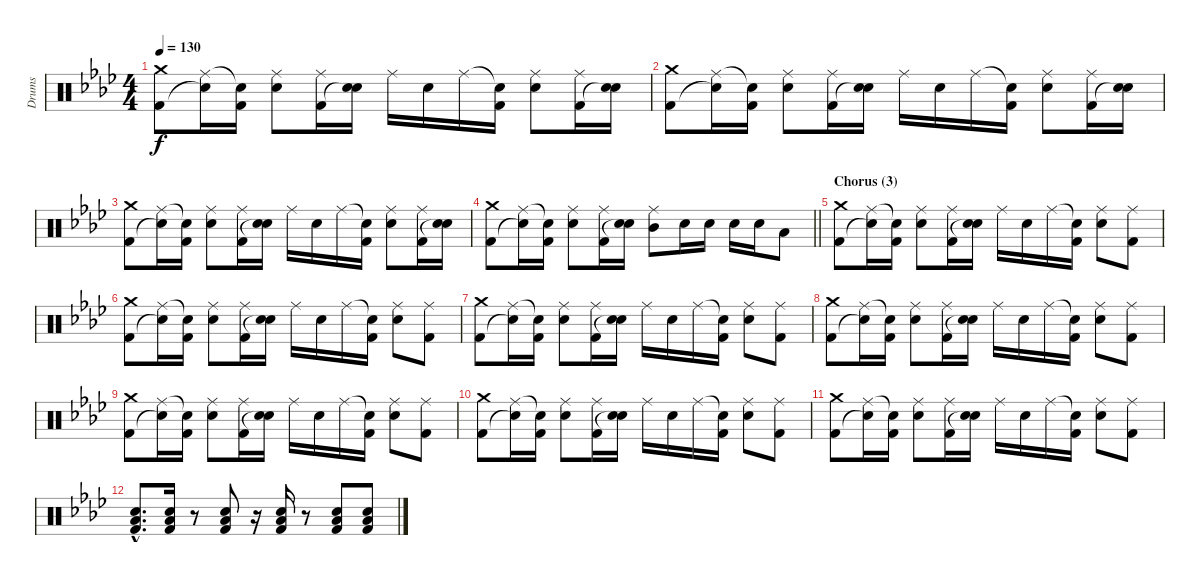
\track ("Drums" "Drums") {instrument percussion}
\staff {score}
\articulation defaults
\ts (4 4)
\tempo 130
\clef neutral
\ks fminor
("Crash medium (hit)" "Kick (hit) 2").8{dy f} ("Ride (middle)" "Snare (hit)"{t}).16 ("Snare (hit)"{t} "Kick (hit) 2").16 ("Ride (middle)" "Electric Snare (hit)").8 ("Ride (middle)" "Kick (hit) 2").16 ("Electric Snare (hit)" "Snare (hit)"{t}).16 "Ride (middle)".16 "Electric Snare (hit)".16 "Ride (middle)".16 ("Snare (hit)"{t} "Kick (hit) 2").16 ("Ride (middle)" "Electric Snare (hit)").8 ("Ride (middle)" "Kick (hit) 2").16 ("Electric Snare (hit)" "Snare (hit)"{t}).16 |
("Crash medium (hit)" "Kick (hit) 2").8 ("Ride (middle)" "Snare (hit)"{t}).16 ("Snare (hit)"{t} "Kick (hit) 2").16 ("Ride (middle)" "Electric Snare (hit)").8 ("Ride (middle)" "Kick (hit) 2").16 ("Electric Snare (hit)" "Snare (hit)"{t}).16 "Ride (middle)".16 "Electric Snare (hit)".16 "Ride (middle)".16 ("Snare (hit)"{t} "Kick (hit) 2").16 ("Ride (middle)" "Electric Snare (hit)").8 ("Ride (middle)" "Kick (hit) 2").16 ("Electric Snare (hit)" "Snare (hit)"{t}).16 |
("Crash medium (hit)" "Kick (hit) 2").8 ("Ride (middle)" "Snare (hit)"{t}).16 ("Snare (hit)"{t} "Kick (hit) 2").16 ("Ride (middle)" "Electric Snare (hit)").8 ("Ride (middle)" "Kick (hit) 2").16 ("Electric Snare (hit)" "Snare (hit)"{t}).16 "Ride (middle)".16 "Electric Snare (hit)".16 "Ride (middle)".16 ("Snare (hit)"{t} "Kick (hit) 2").16 ("Ride (middle)" "Electric Snare (hit)").8 ("Ride (middle)" "Kick (hit) 2").16 ("Electric Snare (hit)" "Snare (hit)"{t}).16 |
\barLineRight lightlight
("Crash medium (hit)" "Kick (hit) 2").8 ("Ride (middle)" "Snare (hit)"{t}).16 ("Snare (hit)"{t} "Kick (hit) 2").16 ("Ride (middle)" "Electric Snare (hit)").8 ("Ride (middle)" "Kick (hit) 2").16 ("Electric Snare (hit)" "Snare (hit)"{t}).16 ("Ride (middle)" "Mid Tom (hit)").8 "Electric Snare (hit)".16 "Electric Snare (hit)".16 "Electric Snare (hit)".16 "Electric Snare (hit)".16 "Low Floor Tom (hit)".8 |
\section ("" "Chorus (3)")
("Crash medium (hit)" "Kick (hit) 2").8 ("Ride (middle)" "Snare (hit)"{t}).16 ("Snare (hit)"{t} "Kick (hit) 2").16 ("Ride (middle)" "Electric Snare (hit)").8 ("Ride (middle)" "Kick (hit) 2").16 ("Electric Snare (hit)" "Snare (hit)"{t}).16 "Ride (middle)".16 "Electric Snare (hit)".16 "Ride (middle)".16 ("Snare (hit)"{t} "Kick (hit) 2").16 ("Ride (middle)" "Electric Snare (hit)").8 ("Ride (middle)" "Kick (hit) 2").8 |
("Crash medium (hit)" "Kick (hit) 2").8 ("Ride (middle)" "Snare (hit)"{t}).16 ("Snare (hit)"{t} "Kick (hit) 2").16 ("Ride (middle)" "Electric Snare (hit)").8 ("Ride (middle)" "Kick (hit) 2").16 ("Electric Snare (hit)" "Snare (hit)"{t}).16 "Ride (middle)".16 "Electric Snare (hit)".16 "Ride (middle)".16 ("Snare (hit)"{t} "Kick (hit) 2").16 ("Ride (middle)" "Electric Snare (hit)").8 ("Ride (middle)" "Kick (hit) 2").8 |
("Crash medium (hit)" "Kick (hit) 2").8 ("Ride (middle)" "Snare (hit)"{t}).16 ("Snare (hit)"{t} "Kick (hit) 2").16 ("Ride (middle)" "Electric Snare (hit)").8 ("Ride (middle)" "Kick (hit) 2").16 ("Electric Snare (hit)" "Snare (hit)"{t}).16 "Ride (middle)".16 "Electric Snare (hit)".16 "Ride (middle)".16 ("Snare (hit)"{t} "Kick (hit) 2").16 ("Ride (middle)" "Electric Snare (hit)").8 ("Ride (middle)" "Kick (hit) 2").8 |
("Crash medium (hit)" "Kick (hit) 2").8 ("Ride (middle)" "Snare (hit)"{t}).16 ("Snare (hit)"{t} "Kick (hit) 2").16 ("Ride (middle)" "Electric Snare (hit)").8 ("Ride (middle)" "Kick (hit) 2").16 ("Electric Snare (hit)" "Snare (hit)"{t}).16 "Ride (middle)".16 "Electric Snare (hit)".16 "Ride (middle)".16 ("Snare (hit)"{t} "Kick (hit) 2").16 ("Ride (middle)" "Electric Snare (hit)").8 ("Ride (middle)" "Kick (hit) 2").8 |
("Crash medium (hit)" "Kick (hit) 2").8 ("Ride (middle)" "Snare (hit)"{t}).16 ("Snare (hit)"{t} "Kick (hit) 2").16 ("Ride (middle)" "Electric Snare (hit)").8 ("Ride (middle)" "Kick (hit) 2").16 ("Electric Snare (hit)" "Snare (hit)"{t}).16 "Ride (middle)".16 "Electric Snare (hit)".16 "Ride (middle)".16 ("Snare (hit)"{t} "Kick (hit) 2").16 ("Ride (middle)" "Electric Snare (hit)").8 ("Ride (middle)" "Kick (hit) 2").8 |
("Crash medium (hit)" "Kick (hit) 2").8 ("Ride (middle)" "Snare (hit)"{t}).16 ("Snare (hit)"{t} "Kick (hit) 2").16 ("Ride (middle)" "Electric Snare (hit)").8 ("Ride (middle)" "Kick (hit) 2").16 ("Electric Snare (hit)" "Snare (hit)"{t}).16 "Ride (middle)".16 "Electric Snare (hit)".16 "Ride (middle)".16 ("Snare (hit)"{t} "Kick (hit) 2").16 ("Ride (middle)" "Electric Snare (hit)").8 ("Ride (middle)" "Kick (hit) 2").8 |
("Crash medium (hit)" "Kick (hit) 2").8 ("Ride (middle)" "Snare (hit)"{t}).16 ("Snare (hit)"{t} "Kick (hit) 2").16 ("Ride (middle)" "Electric Snare (hit)").8 ("Ride (middle)" "Kick (hit) 2").16 ("Electric Snare (hit)" "Snare (hit)"{t}).16 "Ride (middle)".16 "Electric Snare (hit)".16 "Ride (middle)".16 ("Snare (hit)"{t} "Kick (hit) 2").16 ("Ride (middle)" "Electric Snare (hit)").8 ("Ride (middle)" "Kick (hit) 2").8 |
("Electric Snare (hit)"{hac} "Low Floor Tom (hit)"{hac} "Kick (hit) 2"{hac}).8{d} ("Electric Snare (hit)" "Low Floor Tom (hit)" "Kick (hit) 2").16 r.8 ("Electric Snare (hit)" "Low Floor Tom (hit)" "Kick (hit) 2").8 r.16 ("Electric Snare (hit)" "Low Floor Tom (hit)" "Kick (hit) 2").16 r.8 ("Electric Snare (hit)" "Low Floor Tom (hit)" "Kick (hit) 2").8 ("Electric Snare (hit)" "Low Floor Tom (hit)" "Kick (hit) 2").8
